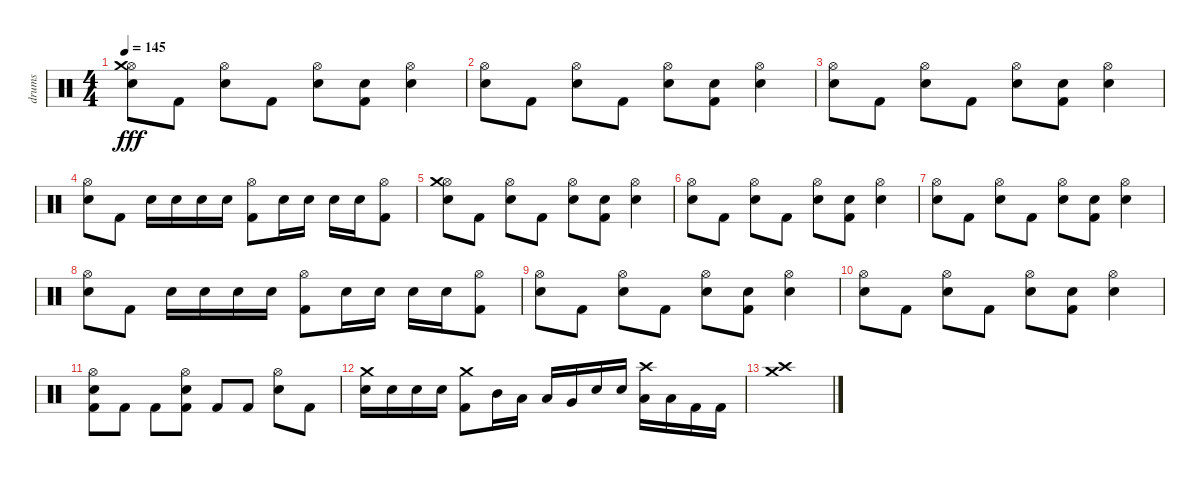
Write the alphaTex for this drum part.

\track ("drums" "drums") {instrument percussion}
\staff {score}
\articulation defaults
\ts (4 4)
\tempo 145
\clef neutral
\ks c
("Hi-Hat (open)" "Crash medium (hit)" "Snare (hit) 2").8{dy fff} "Kick (hit) 2".8 ("Hi-Hat (open)" "Snare (hit) 2").8 "Kick (hit) 2".8 ("Hi-Hat (open)" "Snare (hit) 2").8 ("Snare (hit) 2" "Kick (hit) 2").8 ("Hi-Hat (open)" "Snare (hit) 2").4 |
("Hi-Hat (open)" "Snare (hit) 2").8 "Kick (hit) 2".8 ("Hi-Hat (open)" "Snare (hit) 2").8 "Kick (hit) 2".8 ("Hi-Hat (open)" "Snare (hit) 2").8 ("Snare (hit) 2" "Kick (hit) 2").8 ("Hi-Hat (open)" "Snare (hit) 2").4 |
("Hi-Hat (open)" "Snare (hit) 2").8 "Kick (hit) 2".8 ("Hi-Hat (open)" "Snare (hit) 2").8 "Kick (hit) 2".8 ("Hi-Hat (open)" "Snare (hit) 2").8 ("Snare (hit) 2" "Kick (hit) 2").8 ("Hi-Hat (open)" "Snare (hit) 2").4 |
("Hi-Hat (open)" "Snare (hit) 2").8 "Kick (hit) 2".8 "Snare (hit) 2".16 "Snare (hit) 2".16 "Snare (hit) 2".16 "Snare (hit) 2".16 ("Hi-Hat (open)" "Kick (hit) 2").8 "Snare (hit) 2".16 "Snare (hit) 2".16 "Snare (hit) 2".16 "Snare (hit) 2".16 ("Hi-Hat (open)" "Kick (hit) 2").8 |
("Hi-Hat (open)" "Crash medium (hit)" "Snare (hit) 2").8 "Kick (hit) 2".8 ("Hi-Hat (open)" "Snare (hit) 2").8 "Kick (hit) 2".8 ("Hi-Hat (open)" "Snare (hit) 2").8 ("Snare (hit) 2" "Kick (hit) 2").8 ("Hi-Hat (open)" "Snare (hit) 2").4 |
("Hi-Hat (open)" "Snare (hit) 2").8 "Kick (hit) 2".8 ("Hi-Hat (open)" "Snare (hit) 2").8 "Kick (hit) 2".8 ("Hi-Hat (open)" "Snare (hit) 2").8 ("Snare (hit) 2" "Kick (hit) 2").8 ("Hi-Hat (open)" "Snare (hit) 2").4 |
("Hi-Hat (open)" "Snare (hit) 2").8 "Kick (hit) 2".8 ("Hi-Hat (open)" "Snare (hit) 2").8 "Kick (hit) 2".8 ("Hi-Hat (open)" "Snare (hit) 2").8 ("Snare (hit) 2" "Kick (hit) 2").8 ("Hi-Hat (open)" "Snare (hit) 2").4 |
("Hi-Hat (open)" "Snare (hit) 2").8 "Kick (hit) 2".8 "Snare (hit) 2".16 "Snare (hit) 2".16 "Snare (hit) 2".16 "Snare (hit) 2".16 ("Hi-Hat (open)" "Kick (hit) 2").8 "Snare (hit) 2".16 "Snare (hit) 2".16 "Snare (hit) 2".16 "Snare (hit) 2".16 ("Hi-Hat (open)" "Kick (hit) 2").8 |
("Hi-Hat (open)" "Snare (hit) 2").8 "Kick (hit) 2".8 ("Hi-Hat (open)" "Snare (hit) 2").8 "Kick (hit) 2".8 ("Hi-Hat (open)" "Snare (hit) 2").8 ("Snare (hit) 2" "Kick (hit) 2").8 ("Hi-Hat (open)" "Snare (hit) 2").4 |
("Hi-Hat (open)" "Snare (hit) 2").8 "Kick (hit) 2".8 ("Hi-Hat (open)" "Snare (hit) 2").8 "Kick (hit) 2".8 ("Hi-Hat (open)" "Snare (hit) 2").8 ("Snare (hit) 2" "Kick (hit) 2").8 ("Hi-Hat (open)" "Snare (hit) 2").4 |
("Hi-Hat (open)" "Snare (hit) 2" "Kick (hit) 2").8 "Kick (hit) 2".8 "Kick (hit) 2".8 ("Hi-Hat (open)" "Snare (hit) 2" "Kick (hit) 2").8 "Kick (hit) 2".8 "Kick (hit) 2".8 ("Hi-Hat (open)" "Snare (hit) 2").8 "Kick (hit) 2".8 |
("Crash medium (hit)" "Snare (hit) 2").16 "Snare (hit) 2".16 "Snare (hit) 2".16 "Snare (hit) 2".16 ("Crash medium (hit)" "Kick (hit) 2").8 "Mid Tom (hit)".16 "Low Tom (hit)".16 "Low Tom (hit)".16 "Very Low Tom (hit)".16 "Snare (hit) 2".16 "Snare (hit) 2".16 ("Crash high (hit)" "Low Floor Tom (hit)").16 "Low Floor Tom (hit)".16 "Kick (hit) 2".16 "Kick (hit) 2".16 |
("Crash high (hit)" "Crash medium (hit)").1{volume 12}
